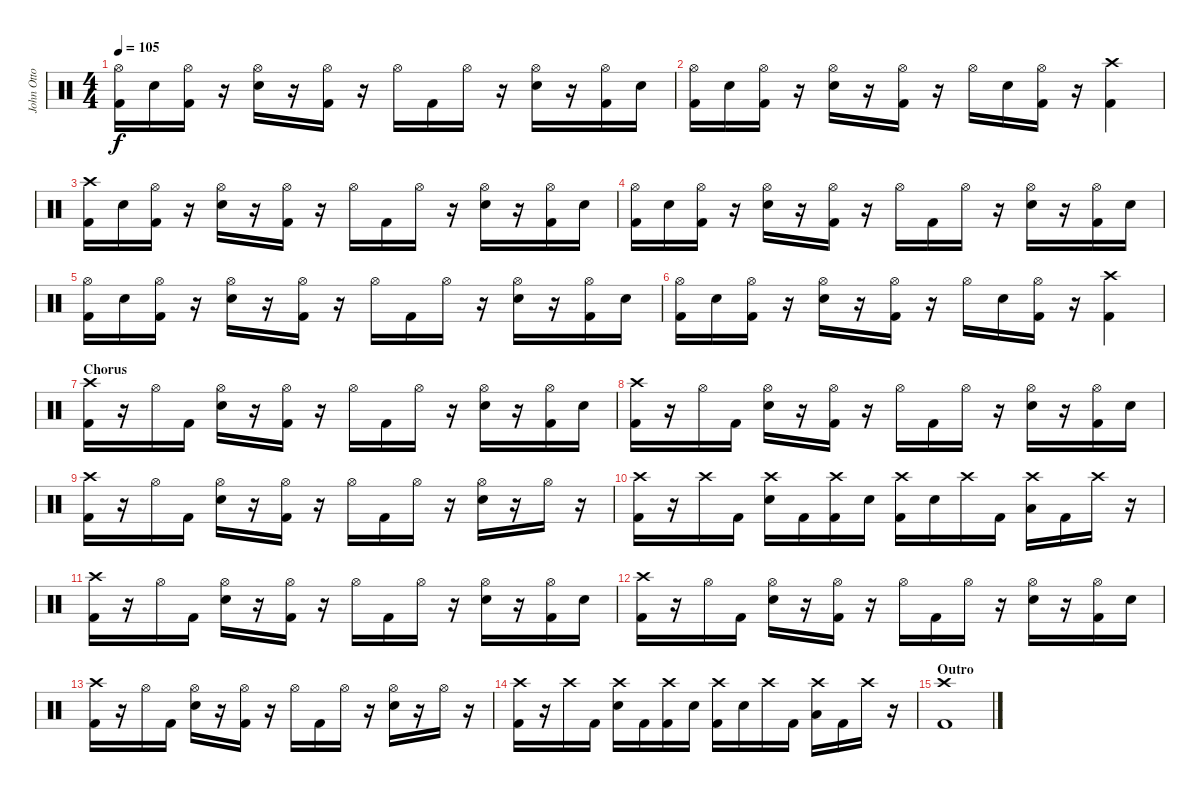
\track ("John Otto - Drums" "John Otto ") {instrument percussion}
\staff {score}
\articulation defaults
\ts (4 4)
\tempo 105
\clef neutral
\ks c
("Hi-Hat (open)" "Kick (hit) 2").16{dy f} "Electric Snare (hit)".16 ("Hi-Hat (open)" "Kick (hit) 2").16 r.16 ("Hi-Hat (open)" "Electric Snare (hit)").16 r.16 ("Hi-Hat (open)" "Kick (hit) 2").16 r.16 "Hi-Hat (open)".16 "Kick (hit) 2".16 "Hi-Hat (open)".16 r.16 ("Hi-Hat (open)" "Electric Snare (hit)").16 r.16 ("Hi-Hat (open)" "Kick (hit) 2").16 "Electric Snare (hit)".16 |
("Hi-Hat (open)" "Kick (hit) 2").16 "Electric Snare (hit)".16 ("Hi-Hat (open)" "Kick (hit) 2").16 r.16 ("Hi-Hat (open)" "Electric Snare (hit)").16 r.16 ("Hi-Hat (open)" "Kick (hit) 2").16 r.16 "Hi-Hat (open)".16 "Electric Snare (hit)".16 ("Hi-Hat (open)" "Kick (hit) 2").16 r.16 ("Crash high (hit)" "Kick (hit) 2").4 |
("Crash high (hit)" "Kick (hit) 2").16 "Electric Snare (hit)".16 ("Hi-Hat (open)" "Kick (hit) 2").16 r.16 ("Hi-Hat (open)" "Electric Snare (hit)").16 r.16 ("Hi-Hat (open)" "Kick (hit) 2").16 r.16 "Hi-Hat (open)".16 "Kick (hit) 2".16 "Hi-Hat (open)".16 r.16 ("Hi-Hat (open)" "Electric Snare (hit)").16 r.16 ("Hi-Hat (open)" "Kick (hit) 2").16 "Electric Snare (hit)".16 |
("Hi-Hat (open)" "Kick (hit) 2").16 "Electric Snare (hit)".16 ("Hi-Hat (open)" "Kick (hit) 2").16 r.16 ("Hi-Hat (open)" "Electric Snare (hit)").16 r.16 ("Hi-Hat (open)" "Kick (hit) 2").16 r.16 "Hi-Hat (open)".16 "Kick (hit) 2".16 "Hi-Hat (open)".16 r.16 ("Hi-Hat (open)" "Electric Snare (hit)").16 r.16 ("Hi-Hat (open)" "Kick (hit) 2").16 "Electric Snare (hit)".16 |
("Hi-Hat (open)" "Kick (hit) 2").16 "Electric Snare (hit)".16 ("Hi-Hat (open)" "Kick (hit) 2").16 r.16 ("Hi-Hat (open)" "Electric Snare (hit)").16 r.16 ("Hi-Hat (open)" "Kick (hit) 2").16 r.16 "Hi-Hat (open)".16 "Kick (hit) 2".16 "Hi-Hat (open)".16 r.16 ("Hi-Hat (open)" "Electric Snare (hit)").16 r.16 ("Hi-Hat (open)" "Kick (hit) 2").16 "Electric Snare (hit)".16 |
("Hi-Hat (open)" "Kick (hit) 2").16 "Electric Snare (hit)".16 ("Hi-Hat (open)" "Kick (hit) 2").16 r.16 ("Hi-Hat (open)" "Electric Snare (hit)").16 r.16 ("Hi-Hat (open)" "Kick (hit) 2").16 r.16 "Hi-Hat (open)".16 "Electric Snare (hit)".16 ("Hi-Hat (open)" "Kick (hit) 2").16 r.16 ("Crash high (hit)" "Kick (hit) 2").4 |
\section ("" "Chorus")
("Crash high (hit)" "Kick (hit) 2").16 r.16 "Hi-Hat (open)".16 "Kick (hit) 2".16 ("Hi-Hat (open)" "Electric Snare (hit)").16 r.16 ("Hi-Hat (open)" "Kick (hit) 2").16 r.16 "Hi-Hat (open)".16 "Kick (hit) 2".16 "Hi-Hat (open)".16 r.16 ("Hi-Hat (open)" "Electric Snare (hit)").16 r.16 ("Hi-Hat (open)" "Kick (hit) 2").16 "Electric Snare (hit)".16 |
("Crash high (hit)" "Kick (hit) 2").16 r.16 "Hi-Hat (open)".16 "Kick (hit) 2".16 ("Hi-Hat (open)" "Electric Snare (hit)").16 r.16 ("Hi-Hat (open)" "Kick (hit) 2").16 r.16 "Hi-Hat (open)".16 "Kick (hit) 2".16 "Hi-Hat (open)".16 r.16 ("Hi-Hat (open)" "Electric Snare (hit)").16 r.16 ("Hi-Hat (open)" "Kick (hit) 2").16 "Electric Snare (hit)".16 |
("Crash high (hit)" "Kick (hit) 2").16 r.16 "Hi-Hat (open)".16 "Kick (hit) 2".16 ("Hi-Hat (open)" "Electric Snare (hit)").16 r.16 ("Hi-Hat (open)" "Kick (hit) 2").16 r.16 "Hi-Hat (open)".16 "Kick (hit) 2".16 "Hi-Hat (open)".16 r.16 ("Hi-Hat (open)" "Electric Snare (hit)").16 r.16 "Hi-Hat (open)".16 r.16 |
("Crash high (hit)" "Kick (hit) 2").16 r.16 "Crash high (hit)".16 "Kick (hit) 2".16 ("Crash high (hit)" "Electric Snare (hit)").16 "Kick (hit) 2".16 ("Crash high (hit)" "Kick (hit) 2").16 "Electric Snare (hit)".16 ("Crash high (hit)" "Kick (hit) 2").16 "Electric Snare (hit)".16 "Crash high (hit)".16 "Kick (hit) 2".16 ("Crash high (hit)" "Low Tom (hit)").16 "Kick (hit) 2".16 "Crash high (hit)".16 r.16 |
("Crash high (hit)" "Kick (hit) 2").16 r.16 "Hi-Hat (open)".16 "Kick (hit) 2".16 ("Hi-Hat (open)" "Electric Snare (hit)").16 r.16 ("Hi-Hat (open)" "Kick (hit) 2").16 r.16 "Hi-Hat (open)".16 "Kick (hit) 2".16 "Hi-Hat (open)".16 r.16 ("Hi-Hat (open)" "Electric Snare (hit)").16 r.16 ("Hi-Hat (open)" "Kick (hit) 2").16 "Electric Snare (hit)".16 |
("Crash high (hit)" "Kick (hit) 2").16 r.16 "Hi-Hat (open)".16 "Kick (hit) 2".16 ("Hi-Hat (open)" "Electric Snare (hit)").16 r.16 ("Hi-Hat (open)" "Kick (hit) 2").16 r.16 "Hi-Hat (open)".16 "Kick (hit) 2".16 "Hi-Hat (open)".16 r.16 ("Hi-Hat (open)" "Electric Snare (hit)").16 r.16 ("Hi-Hat (open)" "Kick (hit) 2").16 "Electric Snare (hit)".16 |
("Crash high (hit)" "Kick (hit) 2").16 r.16 "Hi-Hat (open)".16 "Kick (hit) 2".16 ("Hi-Hat (open)" "Electric Snare (hit)").16 r.16 ("Hi-Hat (open)" "Kick (hit) 2").16 r.16 "Hi-Hat (open)".16 "Kick (hit) 2".16 "Hi-Hat (open)".16 r.16 ("Hi-Hat (open)" "Electric Snare (hit)").16 r.16 "Hi-Hat (open)".16 r.16 |
("Crash high (hit)" "Kick (hit) 2").16 r.16 "Crash high (hit)".16 "Kick (hit) 2".16 ("Crash high (hit)" "Electric Snare (hit)").16 "Kick (hit) 2".16 ("Crash high (hit)" "Kick (hit) 2").16 "Electric Snare (hit)".16 ("Crash high (hit)" "Kick (hit) 2").16 "Electric Snare (hit)".16 "Crash high (hit)".16 "Kick (hit) 2".16 ("Crash high (hit)" "Low Tom (hit)").16 "Kick (hit) 2".16 "Crash high (hit)".16 r.16 |
\section ("" "Outro")
("Crash high (hit)" "Kick (hit) 2").1
